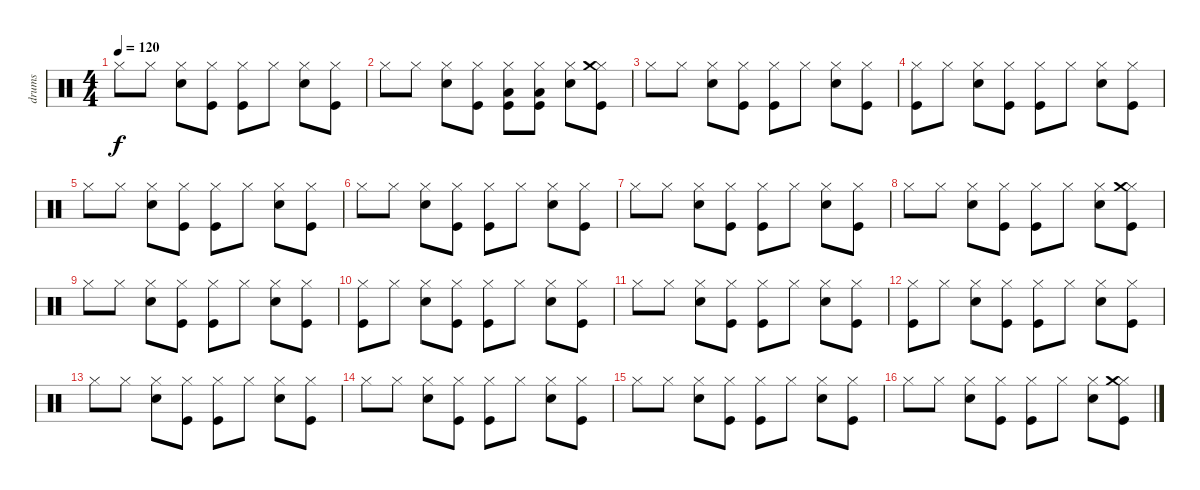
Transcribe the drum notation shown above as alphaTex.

\track ("drums" "drums") {instrument percussion}
\staff {score}
\articulation defaults
\ts (4 4)
\tempo 120
\clef neutral
\ks c "Hi-Hat (closed)".8{dy f} "Hi-Hat (closed)".8
("Electric Snare (hit)" "Hi-Hat (closed)").8 ("Kick (hit)" "Hi-Hat (closed)").8 ("Kick (hit)" "Hi-Hat (closed)").8 "Hi-Hat (closed)".8 ("Electric Snare (hit)" "Hi-Hat (closed)").8 ("Kick (hit)" "Hi-Hat (closed)").8 |
"Hi-Hat (closed)".8 "Hi-Hat (closed)".8 ("Electric Snare (hit)" "Hi-Hat (closed)").8 ("Kick (hit)" "Hi-Hat (closed)").8 ("Kick (hit)" "Hi-Hat (closed)" "Low Tom (hit)").8 ("Kick (hit)" "Hi-Hat (closed)" "Low Tom (hit)").8 ("Electric Snare (hit)" "Hi-Hat (closed)").8 ("Kick (hit)" "Hi-Hat (closed)" "Crash medium (hit)").8 |
"Hi-Hat (closed)".8 "Hi-Hat (closed)".8 ("Electric Snare (hit)" "Hi-Hat (closed)").8 ("Kick (hit)" "Hi-Hat (closed)").8 ("Kick (hit)" "Hi-Hat (closed)").8 "Hi-Hat (closed)".8 ("Electric Snare (hit)" "Hi-Hat (closed)").8 ("Kick (hit)" "Hi-Hat (closed)").8 |
("Kick (hit)" "Hi-Hat (closed)").8 "Hi-Hat (closed)".8 ("Electric Snare (hit)" "Hi-Hat (closed)").8 ("Kick (hit)" "Hi-Hat (closed)").8 ("Kick (hit)" "Hi-Hat (closed)").8 "Hi-Hat (closed)".8 ("Electric Snare (hit)" "Hi-Hat (closed)").8 ("Kick (hit)" "Hi-Hat (closed)").8 |
"Hi-Hat (closed)".8 "Hi-Hat (closed)".8 ("Electric Snare (hit)" "Hi-Hat (closed)").8 ("Kick (hit)" "Hi-Hat (closed)").8 ("Kick (hit)" "Hi-Hat (closed)").8 "Hi-Hat (closed)".8 ("Electric Snare (hit)" "Hi-Hat (closed)").8 ("Kick (hit)" "Hi-Hat (closed)").8 |
"Hi-Hat (closed)".8 "Hi-Hat (closed)".8 ("Electric Snare (hit)" "Hi-Hat (closed)").8 ("Kick (hit)" "Hi-Hat (closed)").8 ("Kick (hit)" "Hi-Hat (closed)").8 "Hi-Hat (closed)".8 ("Electric Snare (hit)" "Hi-Hat (closed)").8 ("Kick (hit)" "Hi-Hat (closed)").8 |
"Hi-Hat (closed)".8 "Hi-Hat (closed)".8 ("Electric Snare (hit)" "Hi-Hat (closed)").8 ("Kick (hit)" "Hi-Hat (closed)").8 ("Kick (hit)" "Hi-Hat (closed)").8 "Hi-Hat (closed)".8 ("Electric Snare (hit)" "Hi-Hat (closed)").8 ("Kick (hit)" "Hi-Hat (closed)").8 |
"Hi-Hat (closed)".8 "Hi-Hat (closed)".8 ("Electric Snare (hit)" "Hi-Hat (closed)").8 ("Kick (hit)" "Hi-Hat (closed)").8 ("Kick (hit)" "Hi-Hat (closed)").8 "Hi-Hat (closed)".8 ("Electric Snare (hit)" "Hi-Hat (closed)").8 ("Kick (hit)" "Hi-Hat (closed)" "Crash medium (hit)").8 |
"Hi-Hat (closed)".8 "Hi-Hat (closed)".8 ("Electric Snare (hit)" "Hi-Hat (closed)").8 ("Kick (hit)" "Hi-Hat (closed)").8 ("Kick (hit)" "Hi-Hat (closed)").8 "Hi-Hat (closed)".8 ("Electric Snare (hit)" "Hi-Hat (closed)").8 ("Kick (hit)" "Hi-Hat (closed)").8 |
("Kick (hit)" "Hi-Hat (closed)").8 "Hi-Hat (closed)".8 ("Electric Snare (hit)" "Hi-Hat (closed)").8 ("Kick (hit)" "Hi-Hat (closed)").8 ("Kick (hit)" "Hi-Hat (closed)").8 "Hi-Hat (closed)".8 ("Electric Snare (hit)" "Hi-Hat (closed)").8 ("Kick (hit)" "Hi-Hat (closed)").8 |
"Hi-Hat (closed)".8 "Hi-Hat (closed)".8 ("Electric Snare (hit)" "Hi-Hat (closed)").8 ("Kick (hit)" "Hi-Hat (closed)").8 ("Kick (hit)" "Hi-Hat (closed)").8 "Hi-Hat (closed)".8 ("Electric Snare (hit)" "Hi-Hat (closed)").8 ("Kick (hit)" "Hi-Hat (closed)").8 |
("Kick (hit)" "Hi-Hat (closed)").8 "Hi-Hat (closed)".8 ("Electric Snare (hit)" "Hi-Hat (closed)").8 ("Kick (hit)" "Hi-Hat (closed)").8 ("Kick (hit)" "Hi-Hat (closed)").8 "Hi-Hat (closed)".8 ("Electric Snare (hit)" "Hi-Hat (closed)").8 ("Kick (hit)" "Hi-Hat (closed)").8 |
"Hi-Hat (closed)".8 "Hi-Hat (closed)".8 ("Electric Snare (hit)" "Hi-Hat (closed)").8 ("Kick (hit)" "Hi-Hat (closed)").8 ("Kick (hit)" "Hi-Hat (closed)").8 "Hi-Hat (closed)".8 ("Electric Snare (hit)" "Hi-Hat (closed)").8 ("Kick (hit)" "Hi-Hat (closed)").8 |
"Hi-Hat (closed)".8 "Hi-Hat (closed)".8 ("Electric Snare (hit)" "Hi-Hat (closed)").8 ("Kick (hit)" "Hi-Hat (closed)").8 ("Kick (hit)" "Hi-Hat (closed)").8 "Hi-Hat (closed)".8 ("Electric Snare (hit)" "Hi-Hat (closed)").8 ("Kick (hit)" "Hi-Hat (closed)").8 |
"Hi-Hat (closed)".8 "Hi-Hat (closed)".8 ("Electric Snare (hit)" "Hi-Hat (closed)").8 ("Kick (hit)" "Hi-Hat (closed)").8 ("Kick (hit)" "Hi-Hat (closed)").8 "Hi-Hat (closed)".8 ("Electric Snare (hit)" "Hi-Hat (closed)").8 ("Kick (hit)" "Hi-Hat (closed)").8 |
"Hi-Hat (closed)".8 "Hi-Hat (closed)".8 ("Electric Snare (hit)" "Hi-Hat (closed)").8 ("Kick (hit)" "Hi-Hat (closed)").8 ("Kick (hit)" "Hi-Hat (closed)").8 "Hi-Hat (closed)".8 ("Electric Snare (hit)" "Hi-Hat (closed)").8 ("Kick (hit)" "Hi-Hat (closed)" "Crash medium (hit)").8
